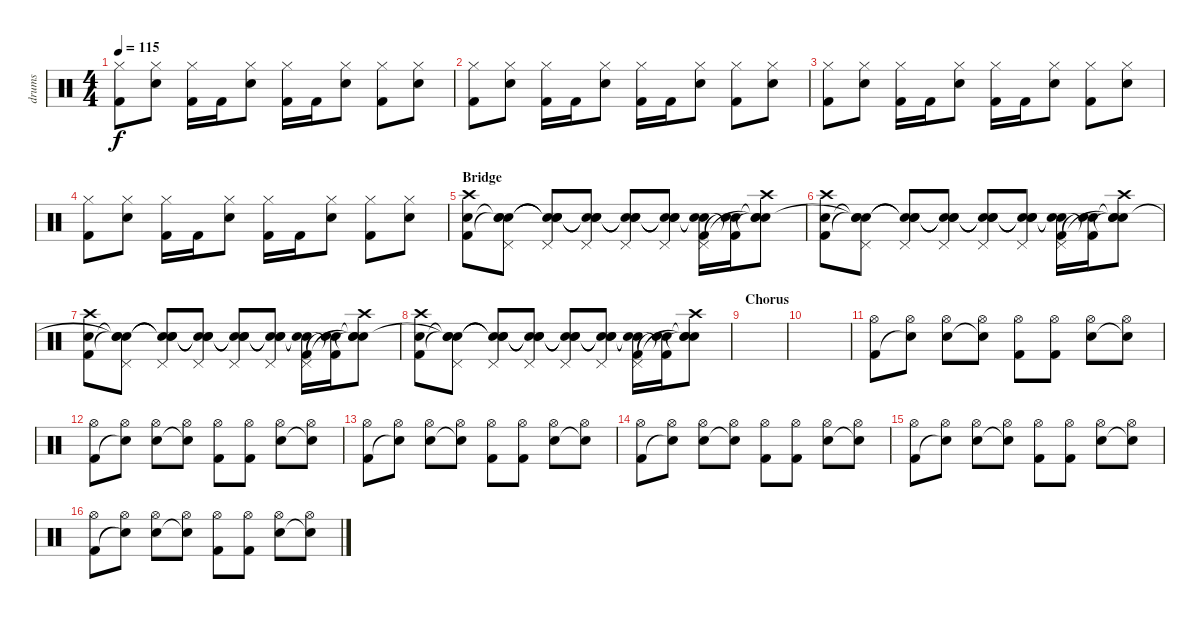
\track ("drums" "drums") {instrument percussion}
\staff {score}
\articulation defaults
\ts (4 4)
\tempo 115
\clef neutral
\ks c
("Hi-Hat (closed)" "Kick (hit) 2").8{dy f} ("Hi-Hat (closed)" "Electric Snare (hit)").8 ("Hi-Hat (closed)" "Kick (hit) 2").16 "Kick (hit) 2".16 ("Hi-Hat (closed)" "Electric Snare (hit)").8 ("Hi-Hat (closed)" "Kick (hit) 2").16 "Kick (hit) 2".16 ("Hi-Hat (closed)" "Electric Snare (hit)").8 ("Hi-Hat (closed)" "Kick (hit) 2").8 ("Hi-Hat (closed)" "Electric Snare (hit)").8 |
("Hi-Hat (closed)" "Kick (hit) 2").8 ("Hi-Hat (closed)" "Electric Snare (hit)").8 ("Hi-Hat (closed)" "Kick (hit) 2").16 "Kick (hit) 2".16 ("Hi-Hat (closed)" "Electric Snare (hit)").8 ("Hi-Hat (closed)" "Kick (hit) 2").16 "Kick (hit) 2".16 ("Hi-Hat (closed)" "Electric Snare (hit)").8 ("Hi-Hat (closed)" "Kick (hit) 2").8 ("Hi-Hat (closed)" "Electric Snare (hit)").8 |
("Hi-Hat (closed)" "Kick (hit) 2").8 ("Hi-Hat (closed)" "Electric Snare (hit)").8 ("Hi-Hat (closed)" "Kick (hit) 2").16 "Kick (hit) 2".16 ("Hi-Hat (closed)" "Electric Snare (hit)").8 ("Hi-Hat (closed)" "Kick (hit) 2").16 "Kick (hit) 2".16 ("Hi-Hat (closed)" "Electric Snare (hit)").8 ("Hi-Hat (closed)" "Kick (hit) 2").8 ("Hi-Hat (closed)" "Electric Snare (hit)").8 |
("Hi-Hat (closed)" "Kick (hit) 2").8 ("Hi-Hat (closed)" "Electric Snare (hit)").8 ("Hi-Hat (closed)" "Kick (hit) 2").16 "Kick (hit) 2".16 ("Hi-Hat (closed)" "Electric Snare (hit)").8 ("Hi-Hat (closed)" "Kick (hit) 2").16 "Kick (hit) 2".16 ("Hi-Hat (closed)" "Electric Snare (hit)").8 ("Hi-Hat (closed)" "Kick (hit) 2").8 ("Hi-Hat (closed)" "Electric Snare (hit)").8 |
\section ("" "Bridge")
("Crash high (hit)" "Electric Snare (hit)" "Kick (hit) 2").8 ("Pedal Hi-Hat (hit)" "Snare (hit)"{t} "Snare (hit)"{t} "Snare (hit)").8 ("Pedal Hi-Hat (hit)" "Snare (hit)"{t} "Snare (hit)"{t} "Snare (hit)"{t}).8 ("Pedal Hi-Hat (hit)" "Snare (hit)"{t} "Snare (hit)"{t} "Snare (hit)"{t}).8 ("Pedal Hi-Hat (hit)" "Snare (hit)"{t} "Snare (hit)"{t} "Snare (hit)"{t}).8 ("Pedal Hi-Hat (hit)" "Snare (hit)"{t} "Snare (hit)"{t} "Snare (hit)"{t}).8 ("Pedal Hi-Hat (hit)" "Snare (hit)"{t} "Snare (hit)"{t} "Kick (hit) 2").16 ("Snare (hit)"{t} "Electric Snare (hit)" "Kick (hit) 2"{t}).16 ("Crash high (hit)" "Snare (hit)"{t} "Snare (hit)"{t} "Snare (hit)"{t}).8 |
("Crash high (hit)" "Electric Snare (hit)" "Kick (hit) 2").8 ("Pedal Hi-Hat (hit)" "Snare (hit)"{t} "Snare (hit)"{t} "Snare (hit)"{t}).8 ("Pedal Hi-Hat (hit)" "Snare (hit)"{t} "Snare (hit)"{t} "Snare (hit)"{t}).8 ("Pedal Hi-Hat (hit)" "Snare (hit)"{t} "Snare (hit)"{t} "Snare (hit)"{t}).8 ("Pedal Hi-Hat (hit)" "Snare (hit)"{t} "Snare (hit)"{t} "Snare (hit)"{t}).8 ("Pedal Hi-Hat (hit)" "Snare (hit)"{t} "Snare (hit)"{t} "Snare (hit)"{t}).8 ("Pedal Hi-Hat (hit)" "Snare (hit)"{t} "Snare (hit)"{t} "Kick (hit) 2").16 ("Snare (hit)"{t} "Electric Snare (hit)" "Kick (hit) 2"{t}).16 ("Crash high (hit)" "Snare (hit)"{t} "Snare (hit)"{t} "Snare (hit)"{t}).8 |
("Crash high (hit)" "Electric Snare (hit)" "Kick (hit) 2").8 ("Pedal Hi-Hat (hit)" "Snare (hit)"{t} "Snare (hit)"{t} "Snare (hit)"{t}).8 ("Pedal Hi-Hat (hit)" "Snare (hit)"{t} "Snare (hit)"{t} "Snare (hit)"{t}).8 ("Pedal Hi-Hat (hit)" "Snare (hit)"{t} "Snare (hit)"{t} "Snare (hit)"{t}).8 ("Pedal Hi-Hat (hit)" "Snare (hit)"{t} "Snare (hit)"{t} "Snare (hit)"{t}).8 ("Pedal Hi-Hat (hit)" "Snare (hit)"{t} "Snare (hit)"{t} "Snare (hit)"{t}).8 ("Pedal Hi-Hat (hit)" "Snare (hit)"{t} "Snare (hit)"{t} "Kick (hit) 2").16 ("Snare (hit)"{t} "Electric Snare (hit)" "Kick (hit) 2"{t}).16 ("Crash high (hit)" "Snare (hit)"{t} "Snare (hit)"{t} "Snare (hit)"{t}).8 |
("Crash high (hit)" "Electric Snare (hit)" "Kick (hit) 2").8 ("Pedal Hi-Hat (hit)" "Snare (hit)"{t} "Snare (hit)"{t} "Snare (hit)"{t}).8 ("Pedal Hi-Hat (hit)" "Snare (hit)"{t} "Snare (hit)"{t} "Snare (hit)"{t}).8 ("Pedal Hi-Hat (hit)" "Snare (hit)"{t} "Snare (hit)"{t} "Snare (hit)"{t}).8 ("Pedal Hi-Hat (hit)" "Snare (hit)"{t} "Snare (hit)"{t} "Snare (hit)"{t}).8 ("Pedal Hi-Hat (hit)" "Snare (hit)"{t} "Snare (hit)"{t} "Snare (hit)"{t}).8 ("Pedal Hi-Hat (hit)" "Snare (hit)"{t} "Snare (hit)"{t} "Kick (hit) 2").16 ("Snare (hit)"{t} "Electric Snare (hit)" "Kick (hit) 2"{t}).16 ("Crash high (hit)" "Snare (hit)"{t} "Snare (hit)"{t} "Snare (hit)"{t}).8 |
\section ("" "Chorus")
|
|
("Hi-Hat (open)" "Kick (hit) 2").8 ("Hi-Hat (open)" "Snare (hit)"{t}).8 ("Hi-Hat (open)" "Electric Snare (hit)").8 ("Hi-Hat (open)" "Snare (hit)"{t}).8 ("Hi-Hat (open)" "Kick (hit) 2").8 ("Hi-Hat (open)" "Kick (hit) 2").8 ("Hi-Hat (open)" "Electric Snare (hit)").8 ("Hi-Hat (open)" "Snare (hit)"{t}).8 |
("Hi-Hat (open)" "Kick (hit) 2").8 ("Hi-Hat (open)" "Snare (hit)"{t}).8 ("Hi-Hat (open)" "Electric Snare (hit)").8 ("Hi-Hat (open)" "Snare (hit)"{t}).8 ("Hi-Hat (open)" "Kick (hit) 2").8 ("Hi-Hat (open)" "Kick (hit) 2").8 ("Hi-Hat (open)" "Electric Snare (hit)").8 ("Hi-Hat (open)" "Snare (hit)"{t}).8 |
("Hi-Hat (open)" "Kick (hit) 2").8 ("Hi-Hat (open)" "Snare (hit)"{t}).8 ("Hi-Hat (open)" "Electric Snare (hit)").8 ("Hi-Hat (open)" "Snare (hit)"{t}).8 ("Hi-Hat (open)" "Kick (hit) 2").8 ("Hi-Hat (open)" "Kick (hit) 2").8 ("Hi-Hat (open)" "Electric Snare (hit)").8 ("Hi-Hat (open)" "Snare (hit)"{t}).8 |
("Hi-Hat (open)" "Kick (hit) 2").8 ("Hi-Hat (open)" "Snare (hit)"{t}).8 ("Hi-Hat (open)" "Electric Snare (hit)").8 ("Hi-Hat (open)" "Snare (hit)"{t}).8 ("Hi-Hat (open)" "Kick (hit) 2").8 ("Hi-Hat (open)" "Kick (hit) 2").8 ("Hi-Hat (open)" "Electric Snare (hit)").8 ("Hi-Hat (open)" "Snare (hit)"{t}).8 |
("Hi-Hat (open)" "Kick (hit) 2").8 ("Hi-Hat (open)" "Snare (hit)"{t}).8 ("Hi-Hat (open)" "Electric Snare (hit)").8 ("Hi-Hat (open)" "Snare (hit)"{t}).8 ("Hi-Hat (open)" "Kick (hit) 2").8 ("Hi-Hat (open)" "Kick (hit) 2").8 ("Hi-Hat (open)" "Electric Snare (hit)").8 ("Hi-Hat (open)" "Snare (hit)"{t}).8 |
("Hi-Hat (open)" "Kick (hit) 2").8 ("Hi-Hat (open)" "Snare (hit)"{t}).8 ("Hi-Hat (open)" "Electric Snare (hit)").8 ("Hi-Hat (open)" "Snare (hit)"{t}).8 ("Hi-Hat (open)" "Kick (hit) 2").8 ("Hi-Hat (open)" "Kick (hit) 2").8 ("Hi-Hat (open)" "Electric Snare (hit)").8 ("Hi-Hat (open)" "Snare (hit)"{t}).8
